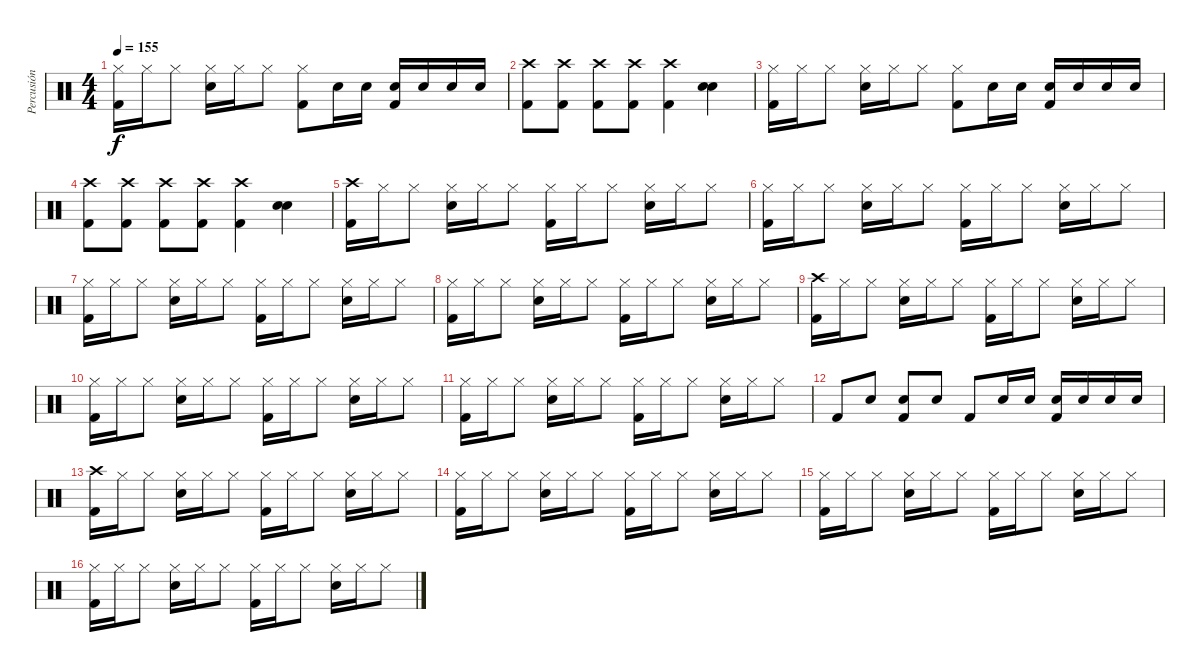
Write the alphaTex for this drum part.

\track ("Percusión" "Percusión") {instrument percussion}
\staff {score}
\articulation defaults
\ts (4 4)
\tempo 155
\clef neutral
\ks c
("Hi-Hat (closed)" "Kick (hit) 2").16{dy f} "Hi-Hat (closed)".16 "Hi-Hat (closed)".8 ("Hi-Hat (closed)" "Electric Snare (hit)").16 "Hi-Hat (closed)".16 "Hi-Hat (closed)".8 ("Hi-Hat (closed)" "Kick (hit) 2").8 "Electric Snare (hit)".16 "Electric Snare (hit)".16 ("Electric Snare (hit)" "Kick (hit) 2").16 "Electric Snare (hit)".16 "Electric Snare (hit)".16 "Electric Snare (hit)".16 |
("Crash high (hit)" "Kick (hit) 2").8 ("Crash high (hit)" "Kick (hit) 2").8 ("Crash high (hit)" "Kick (hit) 2").8 ("Crash high (hit)" "Kick (hit) 2").8 ("Crash high (hit)" "Kick (hit) 2").4 ("Electric Snare (hit)" "Electric Snare (hit)").4 |
("Hi-Hat (closed)" "Kick (hit) 2").16 "Hi-Hat (closed)".16 "Hi-Hat (closed)".8 ("Hi-Hat (closed)" "Electric Snare (hit)").16 "Hi-Hat (closed)".16 "Hi-Hat (closed)".8 ("Hi-Hat (closed)" "Kick (hit) 2").8 "Electric Snare (hit)".16 "Electric Snare (hit)".16 ("Electric Snare (hit)" "Kick (hit) 2").16 "Electric Snare (hit)".16 "Electric Snare (hit)".16 "Electric Snare (hit)".16 |
("Crash high (hit)" "Kick (hit) 2").8 ("Crash high (hit)" "Kick (hit) 2").8 ("Crash high (hit)" "Kick (hit) 2").8 ("Crash high (hit)" "Kick (hit) 2").8 ("Crash high (hit)" "Kick (hit) 2").4 ("Electric Snare (hit)" "Electric Snare (hit)").4 |
("Crash high (hit)" "Kick (hit) 2").16 "Hi-Hat (closed)".16 "Hi-Hat (closed)".8 ("Hi-Hat (closed)" "Electric Snare (hit)").16 "Hi-Hat (closed)".16 "Hi-Hat (closed)".8 ("Hi-Hat (closed)" "Kick (hit) 2").16 "Hi-Hat (closed)".16 "Hi-Hat (closed)".8 ("Hi-Hat (closed)" "Electric Snare (hit)").16 "Hi-Hat (closed)".16 "Hi-Hat (closed)".8 |
("Hi-Hat (closed)" "Kick (hit) 2").16 "Hi-Hat (closed)".16 "Hi-Hat (closed)".8 ("Hi-Hat (closed)" "Electric Snare (hit)").16 "Hi-Hat (closed)".16 "Hi-Hat (closed)".8 ("Hi-Hat (closed)" "Kick (hit) 2").16 "Hi-Hat (closed)".16 "Hi-Hat (closed)".8 ("Hi-Hat (closed)" "Electric Snare (hit)").16 "Hi-Hat (closed)".16 "Hi-Hat (closed)".8 |
("Hi-Hat (closed)" "Kick (hit) 2").16 "Hi-Hat (closed)".16 "Hi-Hat (closed)".8 ("Hi-Hat (closed)" "Electric Snare (hit)").16 "Hi-Hat (closed)".16 "Hi-Hat (closed)".8 ("Hi-Hat (closed)" "Kick (hit) 2").16 "Hi-Hat (closed)".16 "Hi-Hat (closed)".8 ("Hi-Hat (closed)" "Electric Snare (hit)").16 "Hi-Hat (closed)".16 "Hi-Hat (closed)".8 |
("Hi-Hat (closed)" "Kick (hit) 2").16 "Hi-Hat (closed)".16 "Hi-Hat (closed)".8 ("Hi-Hat (closed)" "Electric Snare (hit)").16 "Hi-Hat (closed)".16 "Hi-Hat (closed)".8 ("Hi-Hat (closed)" "Kick (hit) 2").16 "Hi-Hat (closed)".16 "Hi-Hat (closed)".8 ("Hi-Hat (closed)" "Electric Snare (hit)").16 "Hi-Hat (closed)".16 "Hi-Hat (closed)".8 |
("Crash high (hit)" "Kick (hit) 2").16 "Hi-Hat (closed)".16 "Hi-Hat (closed)".8 ("Hi-Hat (closed)" "Electric Snare (hit)").16 "Hi-Hat (closed)".16 "Hi-Hat (closed)".8 ("Hi-Hat (closed)" "Kick (hit) 2").16 "Hi-Hat (closed)".16 "Hi-Hat (closed)".8 ("Hi-Hat (closed)" "Electric Snare (hit)").16 "Hi-Hat (closed)".16 "Hi-Hat (closed)".8 |
("Hi-Hat (closed)" "Kick (hit) 2").16 "Hi-Hat (closed)".16 "Hi-Hat (closed)".8 ("Hi-Hat (closed)" "Electric Snare (hit)").16 "Hi-Hat (closed)".16 "Hi-Hat (closed)".8 ("Hi-Hat (closed)" "Kick (hit) 2").16 "Hi-Hat (closed)".16 "Hi-Hat (closed)".8 ("Hi-Hat (closed)" "Electric Snare (hit)").16 "Hi-Hat (closed)".16 "Hi-Hat (closed)".8 |
("Hi-Hat (closed)" "Kick (hit) 2").16 "Hi-Hat (closed)".16 "Hi-Hat (closed)".8 ("Hi-Hat (closed)" "Electric Snare (hit)").16 "Hi-Hat (closed)".16 "Hi-Hat (closed)".8 ("Hi-Hat (closed)" "Kick (hit) 2").16 "Hi-Hat (closed)".16 "Hi-Hat (closed)".8 ("Hi-Hat (closed)" "Electric Snare (hit)").16 "Hi-Hat (closed)".16 "Hi-Hat (closed)".8 |
"Kick (hit) 2".8 "Electric Snare (hit)".8 ("Electric Snare (hit)" "Kick (hit) 2").8 "Electric Snare (hit)".8 "Kick (hit) 2".8 "Electric Snare (hit)".16 "Electric Snare (hit)".16 ("Electric Snare (hit)" "Kick (hit) 2").16 "Electric Snare (hit)".16 "Electric Snare (hit)".16 "Electric Snare (hit)".16 |
("Crash high (hit)" "Kick (hit) 2").16 "Hi-Hat (closed)".16 "Hi-Hat (closed)".8 ("Hi-Hat (closed)" "Electric Snare (hit)").16 "Hi-Hat (closed)".16 "Hi-Hat (closed)".8 ("Hi-Hat (closed)" "Kick (hit) 2").16 "Hi-Hat (closed)".16 "Hi-Hat (closed)".8 ("Hi-Hat (closed)" "Electric Snare (hit)").16 "Hi-Hat (closed)".16 "Hi-Hat (closed)".8 |
("Hi-Hat (closed)" "Kick (hit) 2").16 "Hi-Hat (closed)".16 "Hi-Hat (closed)".8 ("Hi-Hat (closed)" "Electric Snare (hit)").16 "Hi-Hat (closed)".16 "Hi-Hat (closed)".8 ("Hi-Hat (closed)" "Kick (hit) 2").16 "Hi-Hat (closed)".16 "Hi-Hat (closed)".8 ("Hi-Hat (closed)" "Electric Snare (hit)").16 "Hi-Hat (closed)".16 "Hi-Hat (closed)".8 |
("Hi-Hat (closed)" "Kick (hit) 2").16 "Hi-Hat (closed)".16 "Hi-Hat (closed)".8 ("Hi-Hat (closed)" "Electric Snare (hit)").16 "Hi-Hat (closed)".16 "Hi-Hat (closed)".8 ("Hi-Hat (closed)" "Kick (hit) 2").16 "Hi-Hat (closed)".16 "Hi-Hat (closed)".8 ("Hi-Hat (closed)" "Electric Snare (hit)").16 "Hi-Hat (closed)".16 "Hi-Hat (closed)".8 |
("Hi-Hat (closed)" "Kick (hit) 2").16 "Hi-Hat (closed)".16 "Hi-Hat (closed)".8 ("Hi-Hat (closed)" "Electric Snare (hit)").16 "Hi-Hat (closed)".16 "Hi-Hat (closed)".8 ("Hi-Hat (closed)" "Kick (hit) 2").16 "Hi-Hat (closed)".16 "Hi-Hat (closed)".8 ("Hi-Hat (closed)" "Electric Snare (hit)").16 "Hi-Hat (closed)".16 "Hi-Hat (closed)".8
